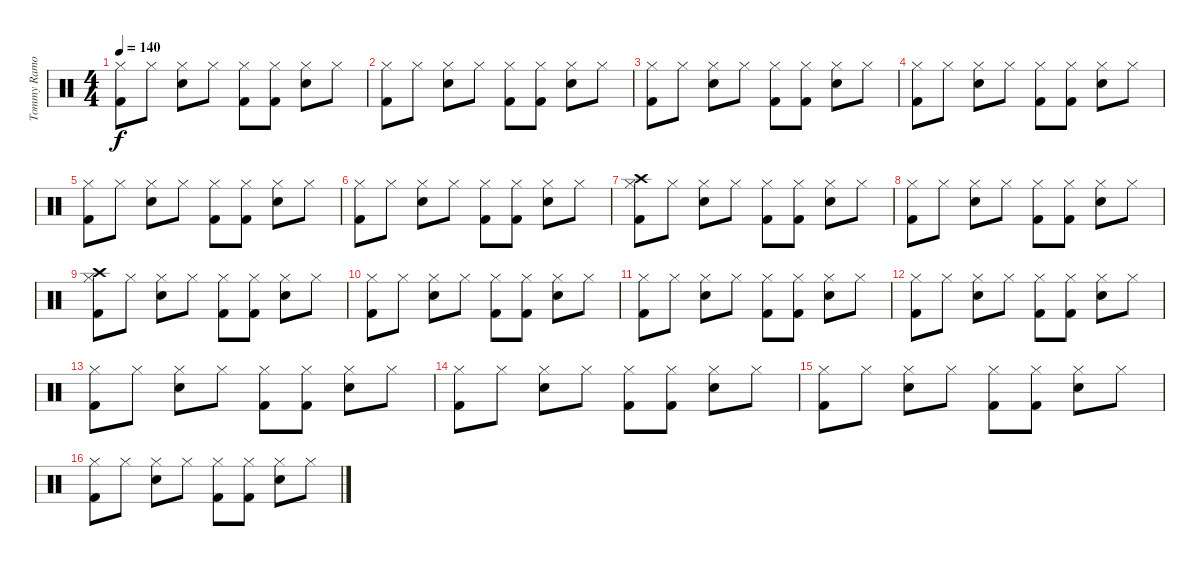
\track ("Tommy Ramone" "Tommy Ramo") {instrument percussion}
\staff {score}
\articulation defaults
\ts (4 4)
\tempo 140
\clef neutral
\ks c
("Hi-Hat (closed)" "Kick (hit) 2").8{dy f} "Hi-Hat (closed)".8 ("Hi-Hat (closed)" "Electric Snare (hit)").8 "Hi-Hat (closed)".8 ("Hi-Hat (closed)" "Kick (hit) 2").8 ("Hi-Hat (closed)" "Kick (hit) 2").8 ("Hi-Hat (closed)" "Electric Snare (hit)").8 "Hi-Hat (closed)".8 |
("Hi-Hat (closed)" "Kick (hit) 2").8 "Hi-Hat (closed)".8 ("Hi-Hat (closed)" "Electric Snare (hit)").8 "Hi-Hat (closed)".8 ("Hi-Hat (closed)" "Kick (hit) 2").8 ("Hi-Hat (closed)" "Kick (hit) 2").8 ("Hi-Hat (closed)" "Electric Snare (hit)").8 "Hi-Hat (closed)".8 |
("Hi-Hat (closed)" "Kick (hit) 2").8 "Hi-Hat (closed)".8 ("Hi-Hat (closed)" "Electric Snare (hit)").8 "Hi-Hat (closed)".8 ("Hi-Hat (closed)" "Kick (hit) 2").8 ("Hi-Hat (closed)" "Kick (hit) 2").8 ("Hi-Hat (closed)" "Electric Snare (hit)").8 "Hi-Hat (closed)".8 |
("Hi-Hat (closed)" "Kick (hit) 2").8 "Hi-Hat (closed)".8 ("Hi-Hat (closed)" "Electric Snare (hit)").8 "Hi-Hat (closed)".8 ("Hi-Hat (closed)" "Kick (hit) 2").8 ("Hi-Hat (closed)" "Kick (hit) 2").8 ("Hi-Hat (closed)" "Electric Snare (hit)").8 "Hi-Hat (closed)".8 |
("Hi-Hat (closed)" "Kick (hit) 2").8 "Hi-Hat (closed)".8 ("Hi-Hat (closed)" "Electric Snare (hit)").8 "Hi-Hat (closed)".8 ("Hi-Hat (closed)" "Kick (hit) 2").8 ("Hi-Hat (closed)" "Kick (hit) 2").8 ("Hi-Hat (closed)" "Electric Snare (hit)").8 "Hi-Hat (closed)".8 |
("Hi-Hat (closed)" "Kick (hit) 2").8 "Hi-Hat (closed)".8 ("Hi-Hat (closed)" "Electric Snare (hit)").8 "Hi-Hat (closed)".8 ("Hi-Hat (closed)" "Kick (hit) 2").8 ("Hi-Hat (closed)" "Kick (hit) 2").8 ("Hi-Hat (closed)" "Electric Snare (hit)").8 "Hi-Hat (closed)".8 |
("Hi-Hat (closed)" "Kick (hit) 2" "Crash high (hit)").8 "Hi-Hat (closed)".8 ("Hi-Hat (closed)" "Electric Snare (hit)").8 "Hi-Hat (closed)".8 ("Hi-Hat (closed)" "Kick (hit) 2").8 ("Hi-Hat (closed)" "Kick (hit) 2").8 ("Hi-Hat (closed)" "Electric Snare (hit)").8 "Hi-Hat (closed)".8 |
("Hi-Hat (closed)" "Kick (hit) 2").8 "Hi-Hat (closed)".8 ("Hi-Hat (closed)" "Electric Snare (hit)").8 "Hi-Hat (closed)".8 ("Hi-Hat (closed)" "Kick (hit) 2").8 ("Hi-Hat (closed)" "Kick (hit) 2").8 ("Hi-Hat (closed)" "Electric Snare (hit)").8 "Hi-Hat (closed)".8 |
("Hi-Hat (closed)" "Kick (hit) 2" "Crash high (hit)").8 "Hi-Hat (closed)".8 ("Hi-Hat (closed)" "Electric Snare (hit)").8 "Hi-Hat (closed)".8 ("Hi-Hat (closed)" "Kick (hit) 2").8 ("Hi-Hat (closed)" "Kick (hit) 2").8 ("Hi-Hat (closed)" "Electric Snare (hit)").8 "Hi-Hat (closed)".8 |
("Hi-Hat (closed)" "Kick (hit) 2").8 "Hi-Hat (closed)".8 ("Hi-Hat (closed)" "Electric Snare (hit)").8 "Hi-Hat (closed)".8 ("Hi-Hat (closed)" "Kick (hit) 2").8 ("Hi-Hat (closed)" "Kick (hit) 2").8 ("Hi-Hat (closed)" "Electric Snare (hit)").8 "Hi-Hat (closed)".8 |
("Hi-Hat (closed)" "Kick (hit) 2").8 "Hi-Hat (closed)".8 ("Hi-Hat (closed)" "Electric Snare (hit)").8 "Hi-Hat (closed)".8 ("Hi-Hat (closed)" "Kick (hit) 2").8 ("Hi-Hat (closed)" "Kick (hit) 2").8 ("Hi-Hat (closed)" "Electric Snare (hit)").8 "Hi-Hat (closed)".8 |
("Hi-Hat (closed)" "Kick (hit) 2").8 "Hi-Hat (closed)".8 ("Hi-Hat (closed)" "Electric Snare (hit)").8 "Hi-Hat (closed)".8 ("Hi-Hat (closed)" "Kick (hit) 2").8 ("Hi-Hat (closed)" "Kick (hit) 2").8 ("Hi-Hat (closed)" "Electric Snare (hit)").8 "Hi-Hat (closed)".8 |
("Hi-Hat (closed)" "Kick (hit) 2").8 "Hi-Hat (closed)".8 ("Hi-Hat (closed)" "Electric Snare (hit)").8 "Hi-Hat (closed)".8 ("Hi-Hat (closed)" "Kick (hit) 2").8 ("Hi-Hat (closed)" "Kick (hit) 2").8 ("Hi-Hat (closed)" "Electric Snare (hit)").8 "Hi-Hat (closed)".8 |
("Hi-Hat (closed)" "Kick (hit) 2").8 "Hi-Hat (closed)".8 ("Hi-Hat (closed)" "Electric Snare (hit)").8 "Hi-Hat (closed)".8 ("Hi-Hat (closed)" "Kick (hit) 2").8 ("Hi-Hat (closed)" "Kick (hit) 2").8 ("Hi-Hat (closed)" "Electric Snare (hit)").8 "Hi-Hat (closed)".8 |
("Hi-Hat (closed)" "Kick (hit) 2").8 "Hi-Hat (closed)".8 ("Hi-Hat (closed)" "Electric Snare (hit)").8 "Hi-Hat (closed)".8 ("Hi-Hat (closed)" "Kick (hit) 2").8 ("Hi-Hat (closed)" "Kick (hit) 2").8 ("Hi-Hat (closed)" "Electric Snare (hit)").8 "Hi-Hat (closed)".8 |
("Hi-Hat (closed)" "Kick (hit) 2").8 "Hi-Hat (closed)".8 ("Hi-Hat (closed)" "Electric Snare (hit)").8 "Hi-Hat (closed)".8 ("Hi-Hat (closed)" "Kick (hit) 2").8 ("Hi-Hat (closed)" "Kick (hit) 2").8 ("Hi-Hat (closed)" "Electric Snare (hit)").8 "Hi-Hat (closed)".8
